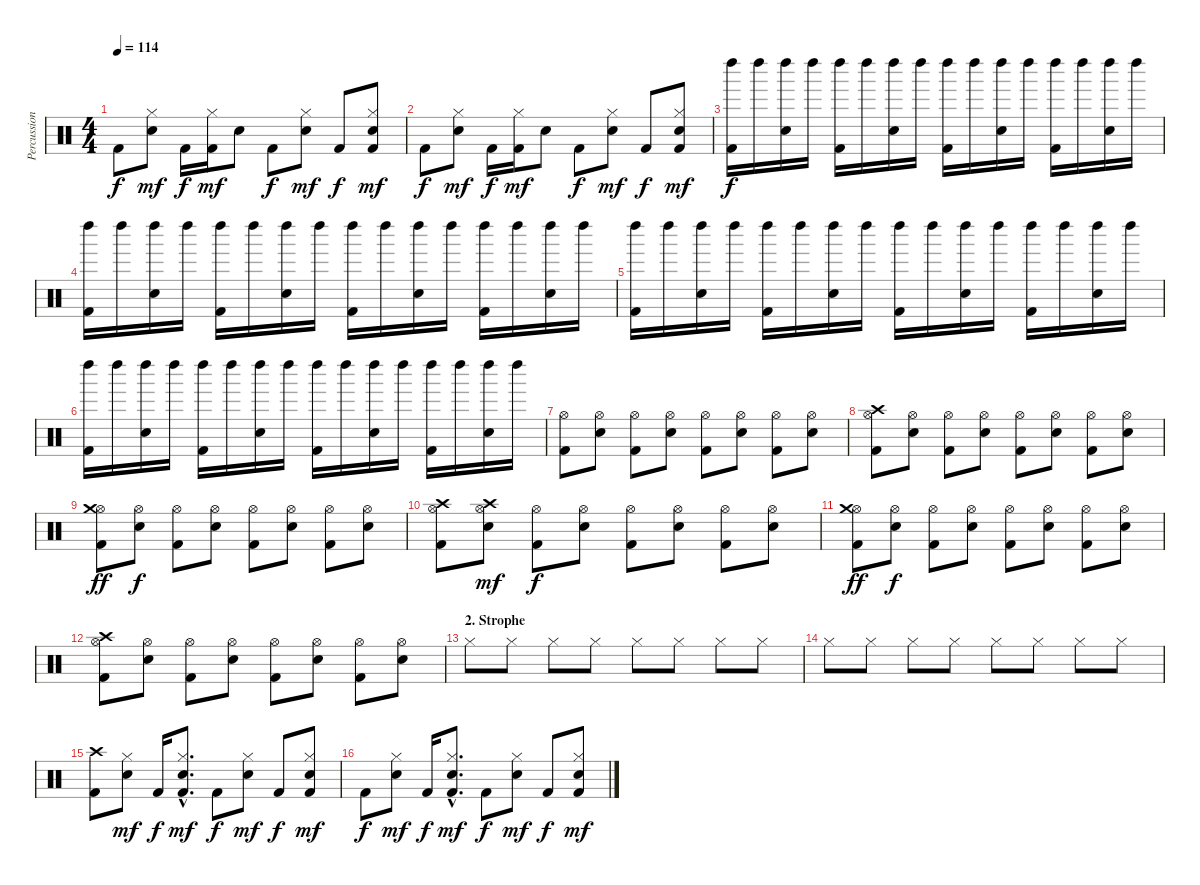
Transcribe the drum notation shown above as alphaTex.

\track ("Percussion" "Percussion") {instrument percussion}
\staff {score}
\articulation defaults
\ts (4 4)
\tempo 114
\clef neutral
\ks c "Kick (hit) 2".8{dy f}
("Hi-Hat (closed)" "Electric Snare (hit)").8{dy mf} "Kick (hit) 2".16{dy f} ("Hi-Hat (closed)" "Kick (hit) 2").16{dy mf} "Electric Snare (hit)".8 "Kick (hit) 2".8{dy f} ("Hi-Hat (closed)" "Electric Snare (hit)").8{dy mf} "Kick (hit) 2".8{dy f} ("Hi-Hat (closed)" "Electric Snare (hit)" "Kick (hit) 2").8{dy mf} |
"Kick (hit) 2".8{dy f} ("Hi-Hat (closed)" "Electric Snare (hit)").8{dy mf} "Kick (hit) 2".16{dy f} ("Hi-Hat (closed)" "Kick (hit) 2").16{dy mf} "Electric Snare (hit)".8 "Kick (hit) 2".8{dy f} ("Hi-Hat (closed)" "Electric Snare (hit)").8{dy mf} "Kick (hit) 2".8{dy f} ("Hi-Hat (closed)" "Electric Snare (hit)" "Kick (hit) 2").8{dy mf} |
("Left Maraca (hit)" "Kick (hit) 2").16{dy f} "Left Maraca (hit)".16 ("Left Maraca (hit)" "Electric Snare (hit)").16 "Left Maraca (hit)".16 ("Left Maraca (hit)" "Kick (hit) 2").16 "Left Maraca (hit)".16 ("Left Maraca (hit)" "Electric Snare (hit)").16 "Left Maraca (hit)".16 ("Left Maraca (hit)" "Kick (hit) 2").16 "Left Maraca (hit)".16 ("Left Maraca (hit)" "Electric Snare (hit)").16 "Left Maraca (hit)".16 ("Left Maraca (hit)" "Kick (hit) 2").16 "Left Maraca (hit)".16 ("Left Maraca (hit)" "Electric Snare (hit)").16 "Left Maraca (hit)".16 |
("Left Maraca (hit)" "Kick (hit) 2").16 "Left Maraca (hit)".16 ("Left Maraca (hit)" "Electric Snare (hit)").16 "Left Maraca (hit)".16 ("Left Maraca (hit)" "Kick (hit) 2").16 "Left Maraca (hit)".16 ("Left Maraca (hit)" "Electric Snare (hit)").16 "Left Maraca (hit)".16 ("Left Maraca (hit)" "Kick (hit) 2").16 "Left Maraca (hit)".16 ("Left Maraca (hit)" "Electric Snare (hit)").16 "Left Maraca (hit)".16 ("Left Maraca (hit)" "Kick (hit) 2").16 "Left Maraca (hit)".16 ("Left Maraca (hit)" "Electric Snare (hit)").16 "Left Maraca (hit)".16 |
("Left Maraca (hit)" "Kick (hit) 2").16 "Left Maraca (hit)".16 ("Left Maraca (hit)" "Electric Snare (hit)").16 "Left Maraca (hit)".16 ("Left Maraca (hit)" "Kick (hit) 2").16 "Left Maraca (hit)".16 ("Left Maraca (hit)" "Electric Snare (hit)").16 "Left Maraca (hit)".16 ("Left Maraca (hit)" "Kick (hit) 2").16 "Left Maraca (hit)".16 ("Left Maraca (hit)" "Electric Snare (hit)").16 "Left Maraca (hit)".16 ("Left Maraca (hit)" "Kick (hit) 2").16 "Left Maraca (hit)".16 ("Left Maraca (hit)" "Electric Snare (hit)").16 "Left Maraca (hit)".16 |
("Left Maraca (hit)" "Kick (hit) 2").16 "Left Maraca (hit)".16 ("Left Maraca (hit)" "Electric Snare (hit)").16 "Left Maraca (hit)".16 ("Left Maraca (hit)" "Kick (hit) 2").16 "Left Maraca (hit)".16 ("Left Maraca (hit)" "Electric Snare (hit)").16 "Left Maraca (hit)".16 ("Left Maraca (hit)" "Kick (hit) 2").16 "Left Maraca (hit)".16 ("Left Maraca (hit)" "Electric Snare (hit)").16 "Left Maraca (hit)".16 ("Left Maraca (hit)" "Kick (hit) 2").16 "Left Maraca (hit)".16 ("Left Maraca (hit)" "Electric Snare (hit)").16 "Left Maraca (hit)".16 |
("Hi-Hat (open)" "Kick (hit) 2").8 ("Hi-Hat (open)" "Electric Snare (hit)").8 ("Hi-Hat (open)" "Kick (hit) 2").8 ("Hi-Hat (open)" "Electric Snare (hit)").8 ("Hi-Hat (open)" "Kick (hit) 2").8 ("Hi-Hat (open)" "Electric Snare (hit)").8 ("Hi-Hat (open)" "Kick (hit) 2").8 ("Hi-Hat (open)" "Electric Snare (hit)").8 |
("Hi-Hat (open)" "Crash high (hit)" "Kick (hit) 2").8 ("Hi-Hat (open)" "Electric Snare (hit)").8 ("Hi-Hat (open)" "Kick (hit) 2").8 ("Hi-Hat (open)" "Electric Snare (hit)").8 ("Hi-Hat (open)" "Kick (hit) 2").8 ("Hi-Hat (open)" "Electric Snare (hit)").8 ("Hi-Hat (open)" "Kick (hit) 2").8 ("Hi-Hat (open)" "Electric Snare (hit)").8 |
("Hi-Hat (open)" "Crash medium (hit)" "Kick (hit) 2").8{dy ff} ("Hi-Hat (open)" "Electric Snare (hit)").8{dy f} ("Hi-Hat (open)" "Kick (hit) 2").8 ("Hi-Hat (open)" "Electric Snare (hit)").8 ("Hi-Hat (open)" "Kick (hit) 2").8 ("Hi-Hat (open)" "Electric Snare (hit)").8 ("Hi-Hat (open)" "Kick (hit) 2").8 ("Hi-Hat (open)" "Electric Snare (hit)").8 |
("Hi-Hat (open)" "Crash high (hit)" "Kick (hit) 2").8 ("Hi-Hat (open)" "Crash high (hit)" "Electric Snare (hit)").8{dy mf} ("Hi-Hat (open)" "Kick (hit) 2").8{dy f} ("Hi-Hat (open)" "Electric Snare (hit)").8 ("Hi-Hat (open)" "Kick (hit) 2").8 ("Hi-Hat (open)" "Electric Snare (hit)").8 ("Hi-Hat (open)" "Kick (hit) 2").8 ("Hi-Hat (open)" "Electric Snare (hit)").8 |
("Hi-Hat (open)" "Crash medium (hit)" "Kick (hit) 2").8{dy ff} ("Hi-Hat (open)" "Electric Snare (hit)").8{dy f} ("Hi-Hat (open)" "Kick (hit) 2").8 ("Hi-Hat (open)" "Electric Snare (hit)").8 ("Hi-Hat (open)" "Kick (hit) 2").8 ("Hi-Hat (open)" "Electric Snare (hit)").8 ("Hi-Hat (open)" "Kick (hit) 2").8 ("Hi-Hat (open)" "Electric Snare (hit)").8 |
("Hi-Hat (open)" "Crash high (hit)" "Kick (hit) 2").8 ("Hi-Hat (open)" "Electric Snare (hit)").8 ("Hi-Hat (open)" "Kick (hit) 2").8 ("Hi-Hat (open)" "Electric Snare (hit)").8 ("Hi-Hat (open)" "Kick (hit) 2").8 ("Hi-Hat (open)" "Electric Snare (hit)").8 ("Hi-Hat (open)" "Kick (hit) 2").8 ("Hi-Hat (open)" "Electric Snare (hit)").8 |
\section ("" "2. Strophe")
"Hi-Hat (closed)".8 "Hi-Hat (closed)".8 "Hi-Hat (closed)".8 "Hi-Hat (closed)".8 "Hi-Hat (closed)".8 "Hi-Hat (closed)".8 "Hi-Hat (closed)".8 "Hi-Hat (closed)".8 |
"Hi-Hat (closed)".8 "Hi-Hat (closed)".8 "Hi-Hat (closed)".8 "Hi-Hat (closed)".8 "Hi-Hat (closed)".8 "Hi-Hat (closed)".8 "Hi-Hat (closed)".8 "Hi-Hat (closed)".8 |
("Crash high (hit)" "Kick (hit) 2").8 ("Hi-Hat (closed)" "Electric Snare (hit)").8{dy mf} "Kick (hit) 2".16{dy f} ("Hi-Hat (closed)"{hac} "Electric Snare (hit)"{hac} "Kick (hit) 2"{hac}).8{d dy mf} "Kick (hit) 2".8{dy f} ("Hi-Hat (closed)" "Electric Snare (hit)").8{dy mf} "Kick (hit) 2".8{dy f} ("Hi-Hat (closed)" "Electric Snare (hit)" "Kick (hit) 2").8{dy mf} |
"Kick (hit) 2".8{dy f} ("Hi-Hat (closed)" "Electric Snare (hit)").8{dy mf} "Kick (hit) 2".16{dy f} ("Hi-Hat (closed)"{hac} "Electric Snare (hit)"{hac} "Kick (hit) 2"{hac}).8{d dy mf} "Kick (hit) 2".8{dy f} ("Hi-Hat (closed)" "Electric Snare (hit)").8{dy mf} "Kick (hit) 2".8{dy f} ("Hi-Hat (closed)" "Electric Snare (hit)" "Kick (hit) 2").8{dy mf}
